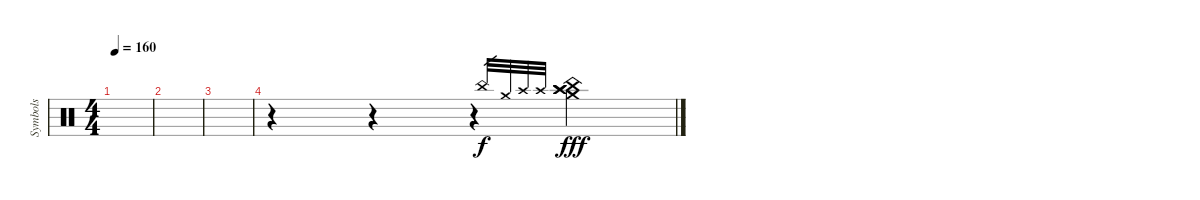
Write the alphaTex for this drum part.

\track ("Symbols" "Symbols") {instrument percussion}
\staff {score}
\articulation defaults
\ts (4 4)
\tempo 160
\clef neutral
\ks c
|
|
|
r.4 r.4 r.4 "China (hit)".32{gr} "Crash medium (hit)".32{gr} "Crash high (hit)".32{gr} "Crash high (hit)".32{gr} ("China (hit)" "Crash medium (hit)" "Crash high (hit)" "Crash high (hit)").4{dy fff}
